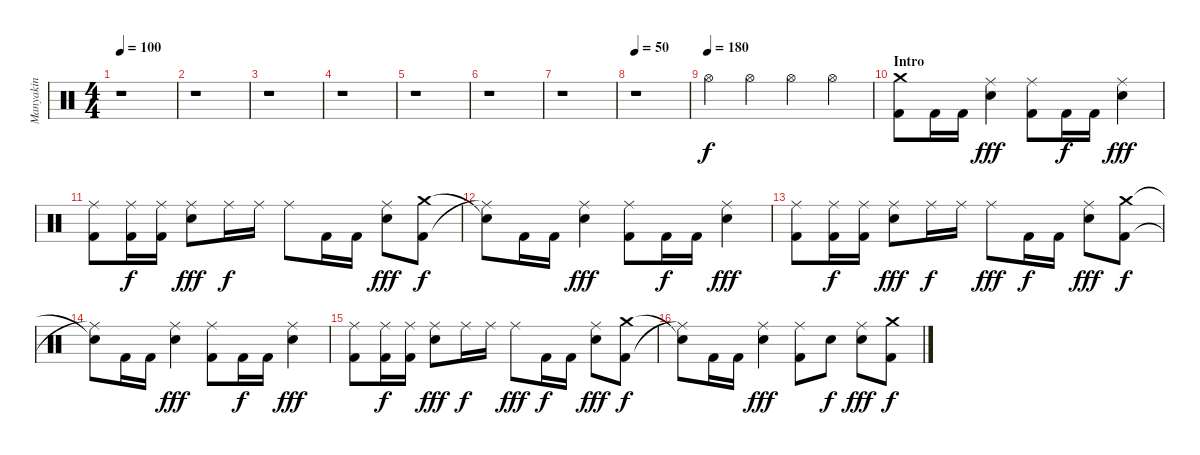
\track ("Manyakin" "Manyakin") {instrument percussion}
\staff {score}
\articulation defaults
\ts (4 4)
\tempo 100
\clef neutral
\ks c
r.1{dy f} |
r.1 |
r.1 |
r.1 |
r.1 |
r.1 |
r.1 |
\tempo 50
r.1 |
\tempo (180)
"Hi-Hat (open)".4 "Hi-Hat (open)".4 "Hi-Hat (open)".4 "Hi-Hat (open)".4 |
\section ("" "Intro ")
("Kick (hit) 2" "Crash medium (hit)").8 "Kick (hit) 2".16 "Kick (hit) 2".16 ("Snare (hit) 2" "Ride (middle)").4{dy fff} ("Kick (hit) 2" "Ride (middle)").8 "Kick (hit) 2".16{dy f} "Kick (hit) 2".16 ("Snare (hit) 2" "Ride (middle)").4{dy fff} |
("Kick (hit) 2" "Ride (middle)").8 ("Kick (hit) 2" "Ride (middle)").16{dy f} ("Kick (hit) 2" "Ride (middle)").16 ("Snare (hit) 2" "Ride (middle)").8{dy fff} "Ride (middle)".16{dy f} "Ride (middle)".16 "Ride (middle)".8 "Kick (hit) 2".16 "Kick (hit) 2".16 ("Snare (hit) 2" "Ride (middle)").8{dy fff} ("Kick (hit) 2" "Crash medium (hit)").8{dy f} |
("Ride (middle)"{t} "Snare (hit)"{t}).8 "Kick (hit) 2".16 "Kick (hit) 2".16 ("Snare (hit) 2" "Ride (middle)").4{dy fff} ("Kick (hit) 2" "Ride (middle)").8 "Kick (hit) 2".16{dy f} "Kick (hit) 2".16 ("Snare (hit) 2" "Ride (middle)").4{dy fff} |
("Kick (hit) 2" "Ride (middle)").8 ("Kick (hit) 2" "Ride (middle)").16{dy f} ("Kick (hit) 2" "Ride (middle)").16 ("Snare (hit) 2" "Ride (middle)").8{dy fff} "Ride (middle)".16{dy f} "Ride (middle)".16 "Ride (middle)".8{dy fff} "Kick (hit) 2".16{dy f} "Kick (hit) 2".16 ("Snare (hit) 2" "Ride (middle)").8{dy fff} ("Kick (hit) 2" "Crash medium (hit)").8{dy f} |
("Ride (middle)"{t} "Snare (hit)"{t}).8 "Kick (hit) 2".16 "Kick (hit) 2".16 ("Snare (hit) 2" "Ride (middle)").4{dy fff} ("Kick (hit) 2" "Ride (middle)").8 "Kick (hit) 2".16{dy f} "Kick (hit) 2".16 ("Snare (hit) 2" "Ride (middle)").4{dy fff} |
("Kick (hit) 2" "Ride (middle)").8 ("Kick (hit) 2" "Ride (middle)").16{dy f} ("Kick (hit) 2" "Ride (middle)").16 ("Snare (hit) 2" "Ride (middle)").8{dy fff} "Ride (middle)".16{dy f} "Ride (middle)".16 "Ride (middle)".8{dy fff} "Kick (hit) 2".16{dy f} "Kick (hit) 2".16 ("Snare (hit) 2" "Ride (middle)").8{dy fff} ("Kick (hit) 2" "Crash medium (hit)").8{dy f} |
("Ride (middle)"{t} "Snare (hit)"{t}).8 "Kick (hit) 2".16 "Kick (hit) 2".16 ("Snare (hit) 2" "Ride (middle)").4{dy fff} ("Kick (hit) 2" "Ride (middle)").8 "Snare (hit) 2".8{dy f} ("Snare (hit) 2" "Ride (middle)").8{dy fff} ("Kick (hit) 2" "Crash medium (hit)").8{dy f}
